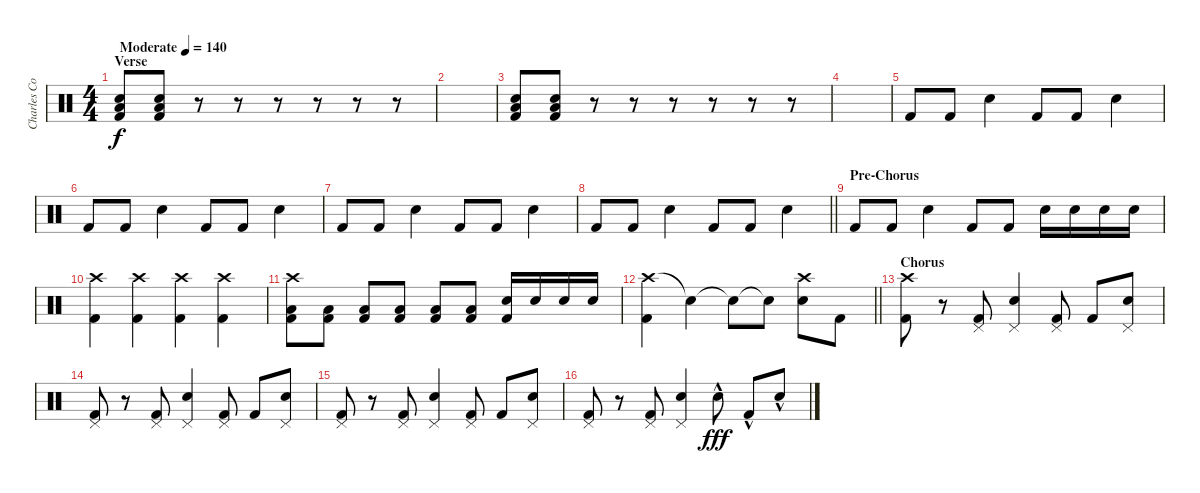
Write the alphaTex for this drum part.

\track ("Charles Comeau" "Charles Co") {instrument percussion}
\staff {score}
\articulation defaults
\ts (4 4)
\section ("" "Verse")
\tempo (140 "Moderate")
\clef neutral
\ks c
("Snare (hit) 2" "Low Tom (hit)" "Kick (hit) 2").8{dy f} ("Snare (hit) 2" "Low Tom (hit)" "Kick (hit) 2").8 r.8 r.8 r.8 r.8 r.8 r.8 |
|
("Snare (hit) 2" "Low Tom (hit)" "Kick (hit) 2").8 ("Snare (hit) 2" "Low Tom (hit)" "Kick (hit) 2").8 r.8 r.8 r.8 r.8 r.8 r.8 |
|
"Kick (hit) 2".8 "Kick (hit) 2".8 "Snare (hit) 2".4 "Kick (hit) 2".8 "Kick (hit) 2".8 "Snare (hit) 2".4 |
"Kick (hit) 2".8 "Kick (hit) 2".8 "Snare (hit) 2".4 "Kick (hit) 2".8 "Kick (hit) 2".8 "Snare (hit) 2".4 |
"Kick (hit) 2".8 "Kick (hit) 2".8 "Snare (hit) 2".4 "Kick (hit) 2".8 "Kick (hit) 2".8 "Snare (hit) 2".4 |
\barLineRight lightlight "Kick (hit) 2".8 "Kick (hit) 2".8 "Snare (hit) 2".4 "Kick (hit) 2".8 "Kick (hit) 2".8 "Snare (hit) 2".4
|
\section ("" "Pre-Chorus")
"Kick (hit) 2".8 "Kick (hit) 2".8 "Snare (hit) 2".4 "Kick (hit) 2".8 "Kick (hit) 2".8 "Snare (hit) 2".16 "Snare (hit) 2".16 "Snare (hit) 2".16 "Snare (hit) 2".16 |
("Crash high (hit)" "Kick (hit) 2").4 ("Crash high (hit)" "Kick (hit) 2").4 ("Crash high (hit)" "Kick (hit) 2").4 ("Crash high (hit)" "Kick (hit) 2").4 |
("Crash high (hit)" "Low Tom (hit)" "Kick (hit) 2").8 ("Low Tom (hit)" "Kick (hit) 2").8 ("Low Tom (hit)" "Kick (hit) 2").8 ("Low Tom (hit)" "Kick (hit) 2").8 ("Low Tom (hit)" "Kick (hit) 2").8 ("Low Tom (hit)" "Kick (hit) 2").8 ("Snare (hit) 2" "Kick (hit) 2").16 "Snare (hit) 2".16 "Snare (hit) 2".16 "Snare (hit) 2".16 |
\barLineRight lightlight
("Crash high (hit)" "Kick (hit) 2").4 "Snare (hit)"{t}.4 "Snare (hit)"{t}.8 "Snare (hit)"{t}.8 ("Crash high (hit)" "Snare (hit) 2").8 "Kick (hit) 2".8 |
\section ("" "Chorus")
("Crash high (hit)" "Kick (hit) 2").8 r.8 ("Pedal Hi-Hat (hit)" "Kick (hit) 2").8 ("Pedal Hi-Hat (hit)" "Snare (hit) 2").4 ("Pedal Hi-Hat (hit)" "Kick (hit) 2").8 "Kick (hit) 2".8 ("Pedal Hi-Hat (hit)" "Snare (hit) 2").8 |
("Pedal Hi-Hat (hit)" "Kick (hit) 2").8 r.8 ("Pedal Hi-Hat (hit)" "Kick (hit) 2").8 ("Pedal Hi-Hat (hit)" "Snare (hit) 2").4 ("Pedal Hi-Hat (hit)" "Kick (hit) 2").8 "Kick (hit) 2".8 ("Pedal Hi-Hat (hit)" "Snare (hit) 2").8 |
("Pedal Hi-Hat (hit)" "Kick (hit) 2").8 r.8 ("Pedal Hi-Hat (hit)" "Kick (hit) 2").8 ("Pedal Hi-Hat (hit)" "Snare (hit) 2").4 ("Pedal Hi-Hat (hit)" "Kick (hit) 2").8 "Kick (hit) 2".8 ("Pedal Hi-Hat (hit)" "Snare (hit) 2").8 |
("Pedal Hi-Hat (hit)" "Kick (hit) 2").8 r.8 ("Pedal Hi-Hat (hit)" "Kick (hit) 2").8 ("Pedal Hi-Hat (hit)" "Snare (hit) 2").4 "Snare (hit) 2"{hac}.8{dy fff} "Kick (hit) 2"{hac}.8 "Snare (hit) 2"{hac}.8
